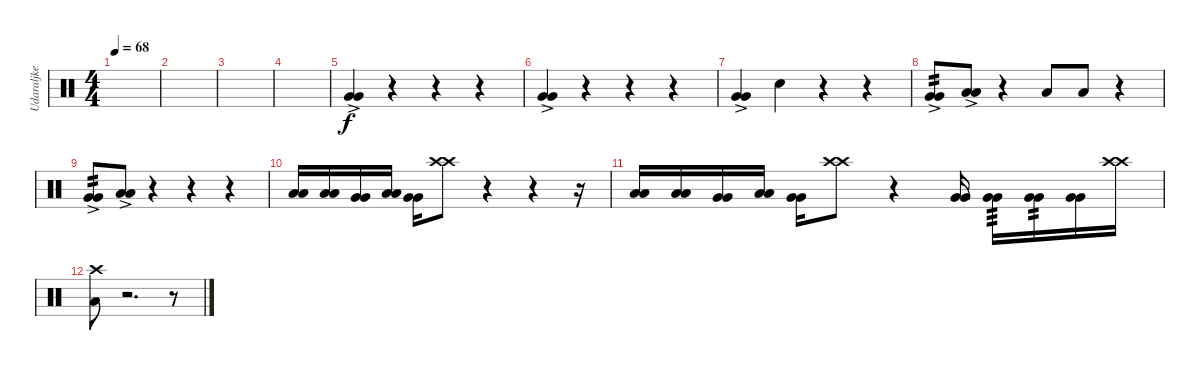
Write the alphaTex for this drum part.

\track ("Udaraljke" "Udaraljke") {instrument percussion}
\staff {score}
\articulation defaults
\ts (4 4)
\tempo 68
\clef neutral
\ks c
|
|
|
|
("Very Low Tom (hit)"{ac} "Very Low Tom (hit)"{ac}).4 r.4 r.4 r.4 |
("Very Low Tom (hit)"{ac} "Very Low Tom (hit)").4 r.4 r.4 r.4 |
("Very Low Tom (hit)"{ac} "Very Low Tom (hit)").4 "Electric Snare (hit)".4 r.4 r.4 |
("Very Low Tom (hit)"{ac} "Very Low Tom (hit)"{ac}).8{tp 2} ("Low Tom (hit)"{ac} "Low Tom (hit)"{ac}).8 r.4 "Low Tom (hit)".8 "Low Tom (hit)".8 r.4 |
("Very Low Tom (hit)"{ac} "Very Low Tom (hit)"{ac}).8{tp 2} ("Low Tom (hit)"{ac} "Low Tom (hit)"{ac}).8 r.4 r.4 r.4 |
("Low Floor Tom (hit)" "Low Floor Tom (hit)").16 ("Low Floor Tom (hit)" "Low Floor Tom (hit)").16 ("Very Low Tom (hit)" "Very Low Tom (hit)").16 ("Low Floor Tom (hit)" "Low Floor Tom (hit)").16 ("Very Low Tom (hit)" "Very Low Tom (hit)").16 ("Crash high (hit)" "Crash high (hit)").8 r.4 r.4 r.16 |
("Low Floor Tom (hit)" "Low Floor Tom (hit)").16 ("Low Floor Tom (hit)" "Low Floor Tom (hit)").16 ("Very Low Tom (hit)" "Very Low Tom (hit)").16 ("Low Floor Tom (hit)" "Low Floor Tom (hit)").16 ("Very Low Tom (hit)" "Very Low Tom (hit)").16 ("Crash high (hit)" "Crash high (hit)").8 r.4 ("Very Low Tom (hit)" "Very Low Tom (hit)").16 ("Very Low Tom (hit)" "Very Low Tom (hit)").16{tp 3} ("Very Low Tom (hit)" "Very Low Tom (hit)").16{tp 2} ("Very Low Tom (hit)" "Very Low Tom (hit)").16 ("Crash high (hit)" "Crash high (hit)").16 |
("Crash high (hit)" "Low Tom (hit)").8 r.2{d} r.8
